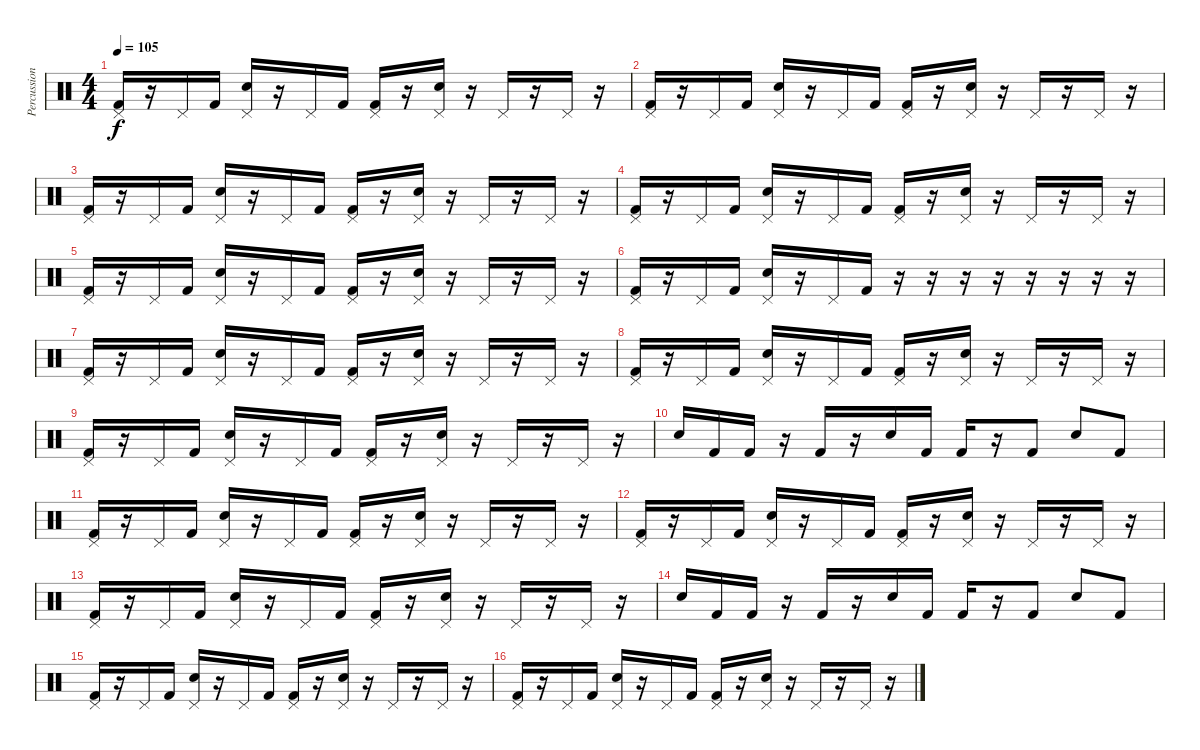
\track ("Percussion" "Percussion") {instrument percussion}
\staff {score}
\articulation defaults
\ts (4 4)
\tempo 105
\clef neutral
\ks c
("Pedal Hi-Hat (hit)" "Kick (hit) 2").16{dy f} r.16 "Pedal Hi-Hat (hit)".16 "Kick (hit) 2".16 ("Pedal Hi-Hat (hit)" "Electric Snare (hit)").16 r.16 "Pedal Hi-Hat (hit)".16 "Kick (hit) 2".16 ("Pedal Hi-Hat (hit)" "Kick (hit) 2").16 r.16 ("Pedal Hi-Hat (hit)" "Electric Snare (hit)").16 r.16 "Pedal Hi-Hat (hit)".16 r.16 "Pedal Hi-Hat (hit)".16 r.16 |
("Pedal Hi-Hat (hit)" "Kick (hit) 2").16 r.16 "Pedal Hi-Hat (hit)".16 "Kick (hit) 2".16 ("Pedal Hi-Hat (hit)" "Electric Snare (hit)").16 r.16 "Pedal Hi-Hat (hit)".16 "Kick (hit) 2".16 ("Pedal Hi-Hat (hit)" "Kick (hit) 2").16 r.16 ("Pedal Hi-Hat (hit)" "Electric Snare (hit)").16 r.16 "Pedal Hi-Hat (hit)".16 r.16 "Pedal Hi-Hat (hit)".16 r.16 |
("Pedal Hi-Hat (hit)" "Kick (hit) 2").16 r.16 "Pedal Hi-Hat (hit)".16 "Kick (hit) 2".16 ("Pedal Hi-Hat (hit)" "Electric Snare (hit)").16 r.16 "Pedal Hi-Hat (hit)".16 "Kick (hit) 2".16 ("Pedal Hi-Hat (hit)" "Kick (hit) 2").16 r.16 ("Pedal Hi-Hat (hit)" "Electric Snare (hit)").16 r.16 "Pedal Hi-Hat (hit)".16 r.16 "Pedal Hi-Hat (hit)".16 r.16 |
("Pedal Hi-Hat (hit)" "Kick (hit) 2").16 r.16 "Pedal Hi-Hat (hit)".16 "Kick (hit) 2".16 ("Pedal Hi-Hat (hit)" "Electric Snare (hit)").16 r.16 "Pedal Hi-Hat (hit)".16 "Kick (hit) 2".16 ("Pedal Hi-Hat (hit)" "Kick (hit) 2").16 r.16 ("Pedal Hi-Hat (hit)" "Electric Snare (hit)").16 r.16 "Pedal Hi-Hat (hit)".16 r.16 "Pedal Hi-Hat (hit)".16 r.16 |
("Pedal Hi-Hat (hit)" "Kick (hit) 2").16 r.16 "Pedal Hi-Hat (hit)".16 "Kick (hit) 2".16 ("Pedal Hi-Hat (hit)" "Electric Snare (hit)").16 r.16 "Pedal Hi-Hat (hit)".16 "Kick (hit) 2".16 ("Pedal Hi-Hat (hit)" "Kick (hit) 2").16 r.16 ("Pedal Hi-Hat (hit)" "Electric Snare (hit)").16 r.16 "Pedal Hi-Hat (hit)".16 r.16 "Pedal Hi-Hat (hit)".16 r.16 |
("Pedal Hi-Hat (hit)" "Kick (hit) 2").16 r.16 "Pedal Hi-Hat (hit)".16 "Kick (hit) 2".16 ("Pedal Hi-Hat (hit)" "Electric Snare (hit)").16 r.16 "Pedal Hi-Hat (hit)".16 "Kick (hit) 2".16 r.16 r.16 r.16 r.16 r.16 r.16 r.16 r.16 |
("Pedal Hi-Hat (hit)" "Kick (hit) 2").16 r.16 "Pedal Hi-Hat (hit)".16 "Kick (hit) 2".16 ("Pedal Hi-Hat (hit)" "Electric Snare (hit)").16 r.16 "Pedal Hi-Hat (hit)".16 "Kick (hit) 2".16 ("Pedal Hi-Hat (hit)" "Kick (hit) 2").16 r.16 ("Pedal Hi-Hat (hit)" "Electric Snare (hit)").16 r.16 "Pedal Hi-Hat (hit)".16 r.16 "Pedal Hi-Hat (hit)".16 r.16 |
("Pedal Hi-Hat (hit)" "Kick (hit) 2").16 r.16 "Pedal Hi-Hat (hit)".16 "Kick (hit) 2".16 ("Pedal Hi-Hat (hit)" "Electric Snare (hit)").16 r.16 "Pedal Hi-Hat (hit)".16 "Kick (hit) 2".16 ("Pedal Hi-Hat (hit)" "Kick (hit) 2").16 r.16 ("Pedal Hi-Hat (hit)" "Electric Snare (hit)").16 r.16 "Pedal Hi-Hat (hit)".16 r.16 "Pedal Hi-Hat (hit)".16 r.16 |
("Pedal Hi-Hat (hit)" "Kick (hit) 2").16 r.16 "Pedal Hi-Hat (hit)".16 "Kick (hit) 2".16 ("Pedal Hi-Hat (hit)" "Electric Snare (hit)").16 r.16 "Pedal Hi-Hat (hit)".16 "Kick (hit) 2".16 ("Pedal Hi-Hat (hit)" "Kick (hit) 2").16 r.16 ("Pedal Hi-Hat (hit)" "Electric Snare (hit)").16 r.16 "Pedal Hi-Hat (hit)".16 r.16 "Pedal Hi-Hat (hit)".16 r.16 |
"Electric Snare (hit)".16 "Kick (hit) 2".16 "Kick (hit) 2".16 r.16 "Kick (hit) 2".16 r.16 "Electric Snare (hit)".16 "Kick (hit) 2".16 "Kick (hit) 2".16 r.16 "Kick (hit) 2".8 "Electric Snare (hit)".8 "Kick (hit) 2".8 |
("Pedal Hi-Hat (hit)" "Kick (hit) 2").16 r.16 "Pedal Hi-Hat (hit)".16 "Kick (hit) 2".16 ("Pedal Hi-Hat (hit)" "Electric Snare (hit)").16 r.16 "Pedal Hi-Hat (hit)".16 "Kick (hit) 2".16 ("Pedal Hi-Hat (hit)" "Kick (hit) 2").16 r.16 ("Pedal Hi-Hat (hit)" "Electric Snare (hit)").16 r.16 "Pedal Hi-Hat (hit)".16 r.16 "Pedal Hi-Hat (hit)".16 r.16 |
("Pedal Hi-Hat (hit)" "Kick (hit) 2").16 r.16 "Pedal Hi-Hat (hit)".16 "Kick (hit) 2".16 ("Pedal Hi-Hat (hit)" "Electric Snare (hit)").16 r.16 "Pedal Hi-Hat (hit)".16 "Kick (hit) 2".16 ("Pedal Hi-Hat (hit)" "Kick (hit) 2").16 r.16 ("Pedal Hi-Hat (hit)" "Electric Snare (hit)").16 r.16 "Pedal Hi-Hat (hit)".16 r.16 "Pedal Hi-Hat (hit)".16 r.16 |
("Pedal Hi-Hat (hit)" "Kick (hit) 2").16 r.16 "Pedal Hi-Hat (hit)".16 "Kick (hit) 2".16 ("Pedal Hi-Hat (hit)" "Electric Snare (hit)").16 r.16 "Pedal Hi-Hat (hit)".16 "Kick (hit) 2".16 ("Pedal Hi-Hat (hit)" "Kick (hit) 2").16 r.16 ("Pedal Hi-Hat (hit)" "Electric Snare (hit)").16 r.16 "Pedal Hi-Hat (hit)".16 r.16 "Pedal Hi-Hat (hit)".16 r.16 |
"Electric Snare (hit)".16 "Kick (hit) 2".16 "Kick (hit) 2".16 r.16 "Kick (hit) 2".16 r.16 "Electric Snare (hit)".16 "Kick (hit) 2".16 "Kick (hit) 2".16 r.16 "Kick (hit) 2".8 "Electric Snare (hit)".8 "Kick (hit) 2".8 |
("Pedal Hi-Hat (hit)" "Kick (hit) 2").16 r.16 "Pedal Hi-Hat (hit)".16 "Kick (hit) 2".16 ("Pedal Hi-Hat (hit)" "Electric Snare (hit)").16 r.16 "Pedal Hi-Hat (hit)".16 "Kick (hit) 2".16 ("Pedal Hi-Hat (hit)" "Kick (hit) 2").16 r.16 ("Pedal Hi-Hat (hit)" "Electric Snare (hit)").16 r.16 "Pedal Hi-Hat (hit)".16 r.16 "Pedal Hi-Hat (hit)".16 r.16 |
("Pedal Hi-Hat (hit)" "Kick (hit) 2").16 r.16 "Pedal Hi-Hat (hit)".16 "Kick (hit) 2".16 ("Pedal Hi-Hat (hit)" "Electric Snare (hit)").16 r.16 "Pedal Hi-Hat (hit)".16 "Kick (hit) 2".16 ("Pedal Hi-Hat (hit)" "Kick (hit) 2").16 r.16 ("Pedal Hi-Hat (hit)" "Electric Snare (hit)").16 r.16 "Pedal Hi-Hat (hit)".16 r.16 "Pedal Hi-Hat (hit)".16 r.16
